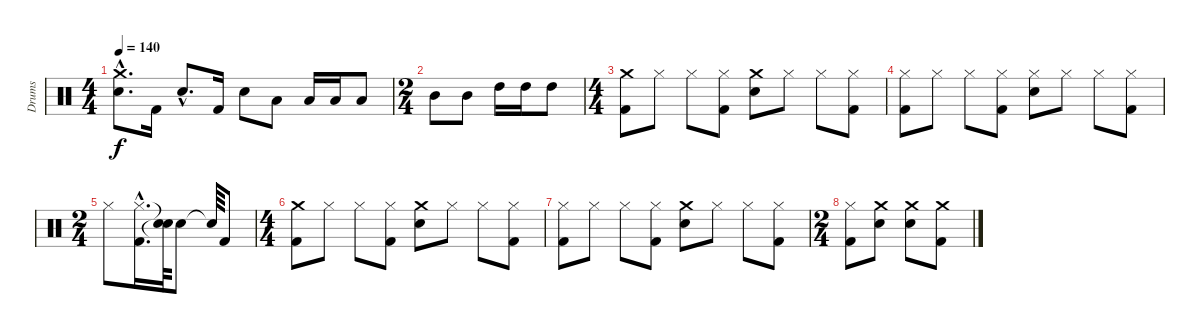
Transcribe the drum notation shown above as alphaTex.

\track ("Drums" "Drums") {instrument percussion}
\staff {score}
\articulation defaults
\ts (4 4)
\tempo 140
\clef neutral
\ks c
("Snare (hit) 2"{hac} "Crash medium (hit)"{hac}).8{d dy f} "Kick (hit) 2".16 "Snare (hit) 2"{hac}.8{d} "Kick (hit) 2".16 "Snare (hit) 2".8 "Low Tom (hit)".8 "Low Tom (hit)".16 "Low Tom (hit)".16 "Low Tom (hit)".8 |
\ts (2 4)
"Mid Tom (hit)".8 "Mid Tom (hit)".8 "High Tom (hit)".16 "High Tom (hit)".16 "High Tom (hit)".8 |
\ts (4 4)
("Crash medium (hit)" "Kick (hit) 2").8 "Hi-Hat (closed)".8 "Hi-Hat (closed)".8 ("Hi-Hat (closed)" "Kick (hit) 2").8 ("Crash medium (hit)" "Snare (hit) 2").8 "Hi-Hat (closed)".8 "Hi-Hat (closed)".8 ("Hi-Hat (closed)" "Kick (hit) 2").8 |
("Hi-Hat (closed)" "Kick (hit) 2").8 "Hi-Hat (closed)".8 "Hi-Hat (closed)".8 ("Hi-Hat (closed)" "Kick (hit) 2").8 ("Hi-Hat (closed)" "Snare (hit) 2").8 "Hi-Hat (closed)".8 "Hi-Hat (closed)".8 ("Hi-Hat (closed)" "Kick (hit) 2").8 |
\ts (2 4)
"Hi-Hat (closed)".8 ("Kick (hit) 2"{hac} "Hi-Hat (closed)"{hac}).16{d} ("Snare (hit)"{t} "Snare (hit)"{t}).64 "Snare (hit) 2".8 "Snare (hit)"{t}.64 "Kick (hit) 2".8 |
\ts (4 4)
("Crash medium (hit)" "Kick (hit) 2").8 "Hi-Hat (closed)".8 "Hi-Hat (closed)".8 ("Hi-Hat (closed)" "Kick (hit) 2").8 ("Crash medium (hit)" "Snare (hit) 2").8 "Hi-Hat (closed)".8 "Hi-Hat (closed)".8 ("Hi-Hat (closed)" "Kick (hit) 2").8 |
("Hi-Hat (closed)" "Kick (hit) 2").8 "Hi-Hat (closed)".8 "Hi-Hat (closed)".8 ("Hi-Hat (closed)" "Kick (hit) 2").8 ("Crash medium (hit)" "Snare (hit) 2").8 "Hi-Hat (closed)".8 "Hi-Hat (closed)".8 ("Hi-Hat (closed)" "Kick (hit) 2").8 |
\ts (2 4)
("Hi-Hat (closed)" "Kick (hit) 2").8 ("Crash medium (hit)" "Snare (hit) 2").8 ("Crash medium (hit)" "Snare (hit) 2").8 ("Crash medium (hit)" "Kick (hit) 2").8
